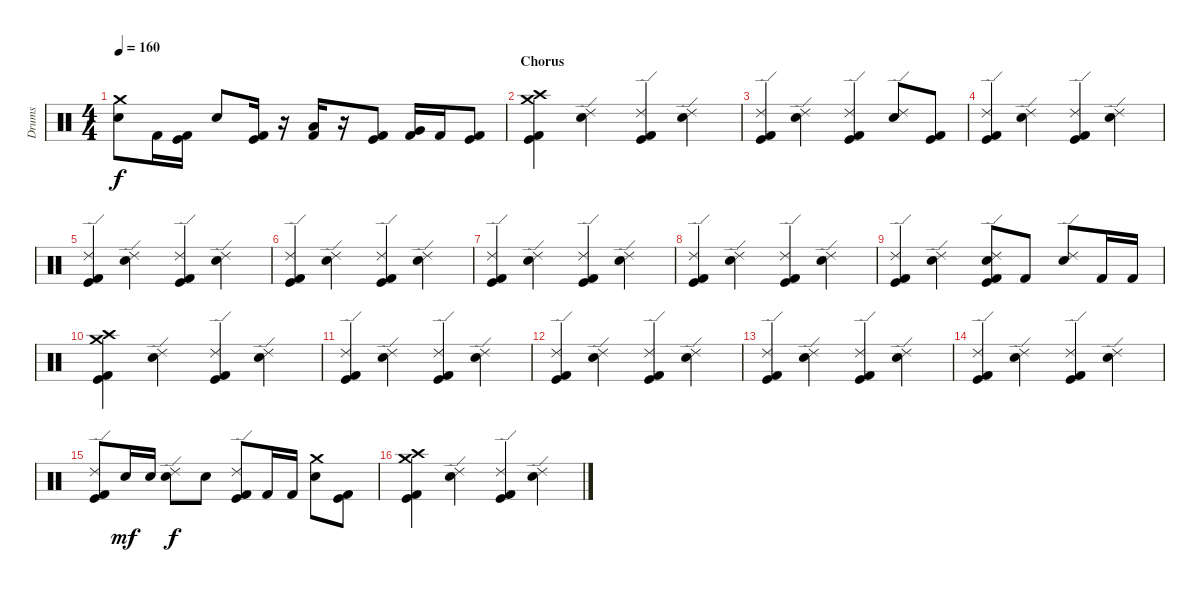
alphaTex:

\track ("Drums" "Drums") {instrument percussion}
\staff {score}
\articulation defaults
\ts (4 4)
\tempo 160
\clef neutral
\ks c
("Crash medium (hit)" "Snare (hit) 2").8{dy f} "Kick (hit) 2".16 ("Kick (hit)" "Kick (hit) 2").16 "Snare (hit) 2".8 ("Kick (hit)" "Kick (hit) 2").16 r.16 ("Low Tom (hit)" "Kick (hit) 2").16 r.16 ("Kick (hit)" "Kick (hit) 2").8 ("Very Low Tom (hit)" "Kick (hit) 2").16 "Kick (hit) 2".16 ("Kick (hit)" "Kick (hit) 2").8 |
\section ("" "Chorus")
("Crash medium (hit)" "Crash high (hit)" "Kick (hit)" "Kick (hit) 2").4 ("Ride (edge) 2" "Snare (hit) 2").4 ("Ride (edge) 2" "Kick (hit)" "Kick (hit) 2").4 ("Ride (edge) 2" "Snare (hit) 2").4 |
("Ride (edge) 2" "Kick (hit)" "Kick (hit) 2").4 ("Ride (edge) 2" "Snare (hit) 2").4 ("Ride (edge) 2" "Kick (hit)" "Kick (hit) 2").4 ("Ride (edge) 2" "Snare (hit) 2").8 ("Kick (hit)" "Kick (hit) 2").8 |
("Ride (edge) 2" "Kick (hit)" "Kick (hit) 2").4 ("Ride (edge) 2" "Snare (hit) 2").4 ("Ride (edge) 2" "Kick (hit)" "Kick (hit) 2").4 ("Ride (edge) 2" "Snare (hit) 2").4 |
("Ride (edge) 2" "Kick (hit)" "Kick (hit) 2").4 ("Ride (edge) 2" "Snare (hit) 2").4 ("Ride (edge) 2" "Kick (hit)" "Kick (hit) 2").4 ("Ride (edge) 2" "Snare (hit) 2").4 |
("Ride (edge) 2" "Kick (hit)" "Kick (hit) 2").4 ("Ride (edge) 2" "Snare (hit) 2").4 ("Ride (edge) 2" "Kick (hit)" "Kick (hit) 2").4 ("Ride (edge) 2" "Snare (hit) 2").4 |
("Ride (edge) 2" "Kick (hit)" "Kick (hit) 2").4 ("Ride (edge) 2" "Snare (hit) 2").4 ("Ride (edge) 2" "Kick (hit)" "Kick (hit) 2").4 ("Ride (edge) 2" "Snare (hit) 2").4 |
("Ride (edge) 2" "Kick (hit)" "Kick (hit) 2").4 ("Ride (edge) 2" "Snare (hit) 2").4 ("Ride (edge) 2" "Kick (hit)" "Kick (hit) 2").4 ("Ride (edge) 2" "Snare (hit) 2").4 |
("Ride (edge) 2" "Kick (hit)" "Kick (hit) 2").4 ("Ride (edge) 2" "Snare (hit) 2").4 ("Ride (edge) 2" "Snare (hit) 2" "Kick (hit)" "Kick (hit) 2").8 "Kick (hit) 2".8 ("Ride (edge) 2" "Snare (hit) 2").8 "Kick (hit) 2".16 "Kick (hit) 2".16 |
("Crash medium (hit)" "Crash high (hit)" "Kick (hit)" "Kick (hit) 2").4 ("Ride (edge) 2" "Snare (hit) 2").4 ("Ride (edge) 2" "Kick (hit)" "Kick (hit) 2").4 ("Ride (edge) 2" "Snare (hit) 2").4 |
("Ride (edge) 2" "Kick (hit)" "Kick (hit) 2").4 ("Ride (edge) 2" "Snare (hit) 2").4 ("Ride (edge) 2" "Kick (hit)" "Kick (hit) 2").4 ("Ride (edge) 2" "Snare (hit) 2").4 |
("Ride (edge) 2" "Kick (hit)" "Kick (hit) 2").4 ("Ride (edge) 2" "Snare (hit) 2").4 ("Ride (edge) 2" "Kick (hit)" "Kick (hit) 2").4 ("Ride (edge) 2" "Snare (hit) 2").4 |
("Ride (edge) 2" "Kick (hit)" "Kick (hit) 2").4 ("Ride (edge) 2" "Snare (hit) 2").4 ("Ride (edge) 2" "Kick (hit)" "Kick (hit) 2").4 ("Ride (edge) 2" "Snare (hit) 2").4 |
("Ride (edge) 2" "Kick (hit)" "Kick (hit) 2").4 ("Ride (edge) 2" "Snare (hit) 2").4 ("Ride (edge) 2" "Kick (hit)" "Kick (hit) 2").4 ("Ride (edge) 2" "Snare (hit) 2").4 |
("Ride (edge) 2" "Kick (hit)" "Kick (hit) 2").8 "Electric Snare (hit)".16{dy mf} "Electric Snare (hit)".16 ("Ride (edge) 2" "Snare (hit) 2").8{dy f} "Electric Snare (hit)".8 ("Ride (edge) 2" "Kick (hit)" "Kick (hit) 2").8 "Kick (hit) 2".16 "Kick (hit) 2".16 ("Crash medium (hit)" "Snare (hit) 2").8 ("Kick (hit)" "Kick (hit) 2").8 |
("Crash medium (hit)" "Crash high (hit)" "Kick (hit)" "Kick (hit) 2").4 ("Ride (edge) 2" "Snare (hit) 2").4 ("Ride (edge) 2" "Kick (hit)" "Kick (hit) 2").4 ("Ride (edge) 2" "Snare (hit) 2").4
